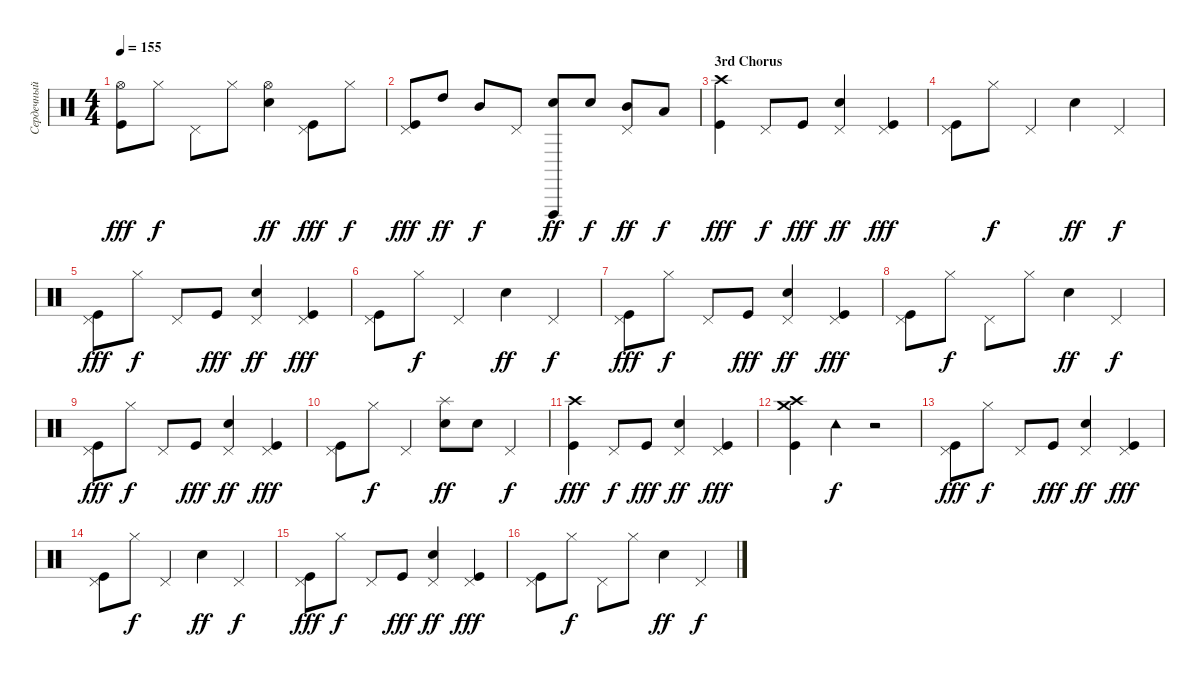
\track ("Сердечный (Ударные)" "Сердечный ") {instrument percussion}
\staff {score}
\articulation defaults
\ts (4 4)
\tempo 155
\clef neutral
\ks c
("Hi-Hat (open)" "Kick (hit)").8{dy fff} "Hi-Hat (closed)".8{dy f} "Pedal Hi-Hat (hit)".8 "Hi-Hat (closed)".8 ("Hi-Hat (open)" "Electric Snare (hit)").4{dy ff} ("Kick (hit)" "Pedal Hi-Hat (hit)").8{dy fff} "Hi-Hat (closed)".8{dy f} |
("Kick (hit)" "Pedal Hi-Hat (hit)").8{dy fff} "High Tom (hit)".8{dy ff} "Mid Tom (hit)".8{dy f} "Pedal Hi-Hat (hit)".8 ("Vibraslap (hit)" "Electric Snare (hit)").8{dy ff} "Electric Snare (hit)".8{dy f} ("Mid Tom (hit)" "Pedal Hi-Hat (hit)").8{dy ff} "Low Tom (hit)".8{dy f} |
\section ("" "3rd Chorus")
("Crash high (hit)" "Kick (hit)").4{dy fff} "Pedal Hi-Hat (hit)".8{dy f} "Kick (hit)".8{dy fff} ("Electric Snare (hit)" "Pedal Hi-Hat (hit)").4{dy ff} ("Kick (hit)" "Pedal Hi-Hat (hit)").4{dy fff} |
("Kick (hit)" "Pedal Hi-Hat (hit)").8 "Hi-Hat (closed)".8{dy f} "Pedal Hi-Hat (hit)".4 "Electric Snare (hit)".4{dy ff} "Pedal Hi-Hat (hit)".4{dy f} |
("Kick (hit)" "Pedal Hi-Hat (hit)").8{dy fff} "Hi-Hat (closed)".8{dy f} "Pedal Hi-Hat (hit)".8 "Kick (hit)".8{dy fff} ("Electric Snare (hit)" "Pedal Hi-Hat (hit)").4{dy ff} ("Kick (hit)" "Pedal Hi-Hat (hit)").4{dy fff} |
("Kick (hit)" "Pedal Hi-Hat (hit)").8 "Hi-Hat (closed)".8{dy f} "Pedal Hi-Hat (hit)".4 "Electric Snare (hit)".4{dy ff} "Pedal Hi-Hat (hit)".4{dy f} |
("Kick (hit)" "Pedal Hi-Hat (hit)").8{dy fff} "Hi-Hat (closed)".8{dy f} "Pedal Hi-Hat (hit)".8 "Kick (hit)".8{dy fff} ("Electric Snare (hit)" "Pedal Hi-Hat (hit)").4{dy ff} ("Kick (hit)" "Pedal Hi-Hat (hit)").4{dy fff} |
("Kick (hit)" "Pedal Hi-Hat (hit)").8 "Hi-Hat (closed)".8{dy f} "Pedal Hi-Hat (hit)".8 "Hi-Hat (closed)".8 "Electric Snare (hit)".4{dy ff} "Pedal Hi-Hat (hit)".4{dy f} |
("Kick (hit)" "Pedal Hi-Hat (hit)").8{dy fff} "Hi-Hat (closed)".8{dy f} "Pedal Hi-Hat (hit)".8 "Kick (hit)".8{dy fff} ("Electric Snare (hit)" "Pedal Hi-Hat (hit)").4{dy ff} ("Kick (hit)" "Pedal Hi-Hat (hit)").4{dy fff} |
("Kick (hit)" "Pedal Hi-Hat (hit)").8 "Hi-Hat (closed)".8{dy f} "Pedal Hi-Hat (hit)".4 ("Splash (hit)" "Electric Snare (hit)").8{dy ff} "Electric Snare (hit)".8 "Pedal Hi-Hat (hit)".4{dy f} |
("Crash high (hit)" "Kick (hit)").4{dy fff} "Pedal Hi-Hat (hit)".8{dy f} "Kick (hit)".8{dy fff} ("Electric Snare (hit)" "Pedal Hi-Hat (hit)").4{dy ff} ("Kick (hit)" "Pedal Hi-Hat (hit)").4{dy fff} |
("Crash medium (hit)" "Crash high (hit)" "Kick (hit)").4 "Tambourine (hit)".4{dy f} r.2 |
("Kick (hit)" "Pedal Hi-Hat (hit)").8{dy fff} "Hi-Hat (closed)".8{dy f} "Pedal Hi-Hat (hit)".8 "Kick (hit)".8{dy fff} ("Electric Snare (hit)" "Pedal Hi-Hat (hit)").4{dy ff} ("Kick (hit)" "Pedal Hi-Hat (hit)").4{dy fff} |
("Kick (hit)" "Pedal Hi-Hat (hit)").8 "Hi-Hat (closed)".8{dy f} "Pedal Hi-Hat (hit)".4 "Electric Snare (hit)".4{dy ff} "Pedal Hi-Hat (hit)".4{dy f} |
("Kick (hit)" "Pedal Hi-Hat (hit)").8{dy fff} "Hi-Hat (closed)".8{dy f} "Pedal Hi-Hat (hit)".8 "Kick (hit)".8{dy fff} ("Electric Snare (hit)" "Pedal Hi-Hat (hit)").4{dy ff} ("Kick (hit)" "Pedal Hi-Hat (hit)").4{dy fff} |
("Kick (hit)" "Pedal Hi-Hat (hit)").8 "Hi-Hat (closed)".8{dy f} "Pedal Hi-Hat (hit)".8 "Hi-Hat (closed)".8 "Electric Snare (hit)".4{dy ff} "Pedal Hi-Hat (hit)".4{dy f}
